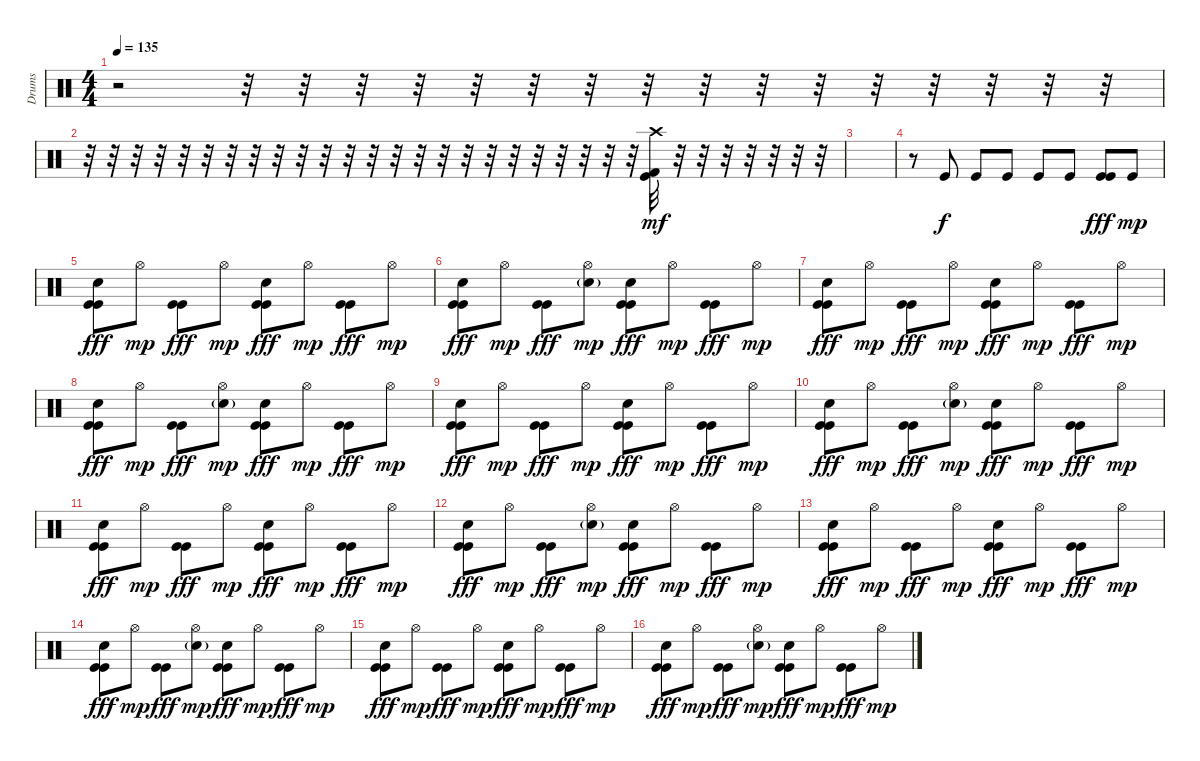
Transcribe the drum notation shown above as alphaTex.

\track ("Drums" "Drums") {instrument percussion bank 24}
\staff
\articulation defaults
\ts (4 4)
\tempo 135
\clef neutral
\ks c
r.2{dy mf} r.32 r.32 r.32 r.32 r.32 r.32 r.32 r.32 r.32 r.32 r.32 r.32 r.32 r.32 r.32 r.32 |
r.32 r.32 r.32 r.32 r.32 r.32 r.32 r.32 r.32 r.32 r.32 r.32 r.32 r.32 r.32 r.32 r.32 r.32 r.32 r.32 r.32 r.32 r.32 r.32 ("Kick (hit)" "Kick (hit) 2" "Crash high (hit)").32 r.32 r.32 r.32 r.32 r.32 r.32 r.32 |
|
r.8 "Kick (hit)".8{dy f} "Kick (hit)".8 "Kick (hit)".8 "Kick (hit)".8 "Kick (hit)".8 ("Kick (hit)" "Kick (hit)").8{dy fff} "Kick (hit)".8{dy mp} |
("Kick (hit)" "Kick (hit)" "Snare (hit) 2").8{dy fff} "Hi-Hat (open)".8{dy mp} ("Kick (hit)" "Kick (hit)").8{dy fff} "Hi-Hat (open)".8{dy mp} ("Kick (hit)" "Kick (hit)" "Snare (hit) 2").8{dy fff} "Hi-Hat (open)".8{dy mp} ("Kick (hit)" "Kick (hit)").8{dy fff} "Hi-Hat (open)".8{dy mp} |
("Kick (hit)" "Kick (hit)" "Snare (hit) 2").8{dy fff} "Hi-Hat (open)".8{dy mp} ("Kick (hit)" "Kick (hit)").8{dy fff} ("Hi-Hat (open)" "Snare (hit) 2"{g}).8{dy mp} ("Kick (hit)" "Kick (hit)" "Snare (hit) 2").8{dy fff} "Hi-Hat (open)".8{dy mp} ("Kick (hit)" "Kick (hit)").8{dy fff} "Hi-Hat (open)".8{dy mp} |
("Kick (hit)" "Kick (hit)" "Snare (hit) 2").8{dy fff} "Hi-Hat (open)".8{dy mp} ("Kick (hit)" "Kick (hit)").8{dy fff} "Hi-Hat (open)".8{dy mp} ("Kick (hit)" "Kick (hit)" "Snare (hit) 2").8{dy fff} "Hi-Hat (open)".8{dy mp} ("Kick (hit)" "Kick (hit)").8{dy fff} "Hi-Hat (open)".8{dy mp} |
("Kick (hit)" "Kick (hit)" "Snare (hit) 2").8{dy fff} "Hi-Hat (open)".8{dy mp} ("Kick (hit)" "Kick (hit)").8{dy fff} ("Hi-Hat (open)" "Snare (hit) 2"{g}).8{dy mp} ("Kick (hit)" "Kick (hit)" "Snare (hit) 2").8{dy fff} "Hi-Hat (open)".8{dy mp} ("Kick (hit)" "Kick (hit)").8{dy fff} "Hi-Hat (open)".8{dy mp} |
("Kick (hit)" "Kick (hit)" "Snare (hit) 2").8{dy fff} "Hi-Hat (open)".8{dy mp} ("Kick (hit)" "Kick (hit)").8{dy fff} "Hi-Hat (open)".8{dy mp} ("Kick (hit)" "Kick (hit)" "Snare (hit) 2").8{dy fff} "Hi-Hat (open)".8{dy mp} ("Kick (hit)" "Kick (hit)").8{dy fff} "Hi-Hat (open)".8{dy mp} |
("Kick (hit)" "Kick (hit)" "Snare (hit) 2").8{dy fff} "Hi-Hat (open)".8{dy mp} ("Kick (hit)" "Kick (hit)").8{dy fff} ("Hi-Hat (open)" "Snare (hit) 2"{g}).8{dy mp} ("Kick (hit)" "Kick (hit)" "Snare (hit) 2").8{dy fff} "Hi-Hat (open)".8{dy mp} ("Kick (hit)" "Kick (hit)").8{dy fff} "Hi-Hat (open)".8{dy mp} |
("Kick (hit)" "Kick (hit)" "Snare (hit) 2").8{dy fff} "Hi-Hat (open)".8{dy mp} ("Kick (hit)" "Kick (hit)").8{dy fff} "Hi-Hat (open)".8{dy mp} ("Kick (hit)" "Kick (hit)" "Snare (hit) 2").8{dy fff} "Hi-Hat (open)".8{dy mp} ("Kick (hit)" "Kick (hit)").8{dy fff} "Hi-Hat (open)".8{dy mp} |
("Kick (hit)" "Kick (hit)" "Snare (hit) 2").8{dy fff} "Hi-Hat (open)".8{dy mp} ("Kick (hit)" "Kick (hit)").8{dy fff} ("Hi-Hat (open)" "Snare (hit) 2"{g}).8{dy mp} ("Kick (hit)" "Kick (hit)" "Snare (hit) 2").8{dy fff} "Hi-Hat (open)".8{dy mp} ("Kick (hit)" "Kick (hit)").8{dy fff} "Hi-Hat (open)".8{dy mp} |
("Kick (hit)" "Kick (hit)" "Snare (hit) 2").8{dy fff} "Hi-Hat (open)".8{dy mp} ("Kick (hit)" "Kick (hit)").8{dy fff} "Hi-Hat (open)".8{dy mp} ("Kick (hit)" "Kick (hit)" "Snare (hit) 2").8{dy fff} "Hi-Hat (open)".8{dy mp} ("Kick (hit)" "Kick (hit)").8{dy fff} "Hi-Hat (open)".8{dy mp} |
("Kick (hit)" "Kick (hit)" "Snare (hit) 2").8{dy fff} "Hi-Hat (open)".8{dy mp} ("Kick (hit)" "Kick (hit)").8{dy fff} ("Hi-Hat (open)" "Snare (hit) 2"{g}).8{dy mp} ("Kick (hit)" "Kick (hit)" "Snare (hit) 2").8{dy fff} "Hi-Hat (open)".8{dy mp} ("Kick (hit)" "Kick (hit)").8{dy fff} "Hi-Hat (open)".8{dy mp} |
("Kick (hit)" "Kick (hit)" "Snare (hit) 2").8{dy fff} "Hi-Hat (open)".8{dy mp} ("Kick (hit)" "Kick (hit)").8{dy fff} "Hi-Hat (open)".8{dy mp} ("Kick (hit)" "Kick (hit)" "Snare (hit) 2").8{dy fff} "Hi-Hat (open)".8{dy mp} ("Kick (hit)" "Kick (hit)").8{dy fff} "Hi-Hat (open)".8{dy mp} |
("Kick (hit)" "Kick (hit)" "Snare (hit) 2").8{dy fff} "Hi-Hat (open)".8{dy mp} ("Kick (hit)" "Kick (hit)").8{dy fff} ("Hi-Hat (open)" "Snare (hit) 2"{g}).8{dy mp} ("Kick (hit)" "Kick (hit)" "Snare (hit) 2").8{dy fff} "Hi-Hat (open)".8{dy mp} ("Kick (hit)" "Kick (hit)").8{dy fff} "Hi-Hat (open)".8{dy mp}
